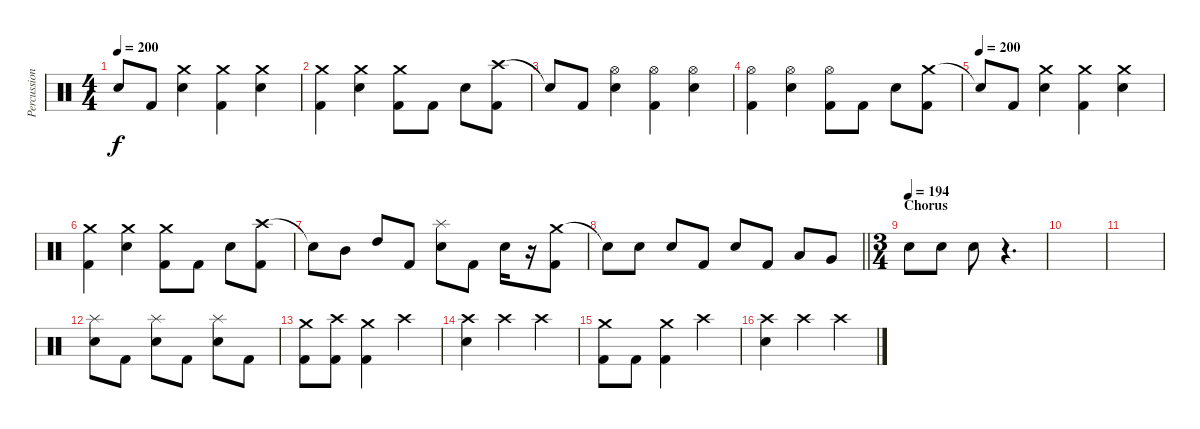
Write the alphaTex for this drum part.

\track ("Percussion" "Percussion") {instrument percussion}
\staff {score}
\articulation defaults
\ts (4 4)
\tempo 200
\clef neutral
\ks c "Snare (hit)"{t}.8{dy f} "Kick (hit) 2".8
("Crash medium (hit)" "Electric Snare (hit)").4 ("Crash medium (hit)" "Kick (hit) 2").4 ("Crash medium (hit)" "Electric Snare (hit)").4 |
("Crash medium (hit)" "Kick (hit) 2").4 ("Crash medium (hit)" "Electric Snare (hit)").4 ("Crash medium (hit)" "Kick (hit) 2").8 "Kick (hit) 2".8 "Electric Snare (hit)".8 ("Crash high (hit)" "Kick (hit) 2").8 |
"Snare (hit)"{t}.8 "Kick (hit) 2".8 ("Hi-Hat (open)" "Electric Snare (hit)").4 ("Hi-Hat (open)" "Kick (hit) 2").4 ("Hi-Hat (open)" "Electric Snare (hit)").4 |
("Hi-Hat (open)" "Kick (hit) 2").4 ("Hi-Hat (open)" "Electric Snare (hit)").4 ("Hi-Hat (open)" "Kick (hit) 2").8 "Kick (hit) 2".8 "Electric Snare (hit)".8 ("Crash medium (hit)" "Kick (hit) 2").8 |
\tempo (200)
"Snare (hit)"{t}.8 "Kick (hit) 2".8 ("Crash medium (hit)" "Electric Snare (hit)").4 ("Crash medium (hit)" "Kick (hit) 2").4 ("Crash medium (hit)" "Electric Snare (hit)").4 |
("Crash medium (hit)" "Kick (hit) 2").4 ("Crash medium (hit)" "Electric Snare (hit)").4 ("Crash medium (hit)" "Kick (hit) 2").8 "Kick (hit) 2".8 "Electric Snare (hit)".8 ("Crash high (hit)" "Kick (hit) 2").8 |
"Snare (hit)"{t}.8 "Mid Tom (hit)".8 "High Tom (hit)".8 "Kick (hit) 2".8 ("Splash (hit)" "Electric Snare (hit)").8 "Kick (hit) 2".8 "Electric Snare (hit)".16 r.16 ("Crash medium (hit)" "Kick (hit) 2").8 |
\barLineRight lightlight "Snare (hit)"{t}.8 "Electric Snare (hit)".8 "Electric Snare (hit)".8 "Kick (hit) 2".8 "Electric Snare (hit)".8 "Kick (hit) 2".8 "Low Tom (hit)".8 "Very Low Tom (hit)".8
|
\ts (3 4)
\section ("" "Chorus")
\tempo (194)
"Electric Snare (hit)".8 "Electric Snare (hit)".8 "Electric Snare (hit)".8 r.4{d} |
|
|
("Splash (hit)" "Electric Snare (hit)").8 "Kick (hit) 2".8 ("Splash (hit)" "Electric Snare (hit)").8 "Kick (hit) 2".8 ("Splash (hit)" "Electric Snare (hit)").8 "Kick (hit) 2".8 |
("Crash medium (hit)" "Kick (hit) 2").8 ("Crash high (hit)" "Kick (hit) 2").8 ("Crash medium (hit)" "Kick (hit) 2").4 "Crash high (hit)".4 |
("Crash high (hit)" "Electric Snare (hit)").4 "Crash high (hit)".4 "Crash high (hit)".4 |
("Crash medium (hit)" "Kick (hit) 2").8 "Kick (hit) 2".8 ("Crash medium (hit)" "Kick (hit) 2").4 "Crash high (hit)".4 |
("Crash high (hit)" "Electric Snare (hit)").4 "Crash high (hit)".4 "Crash high (hit)".4
